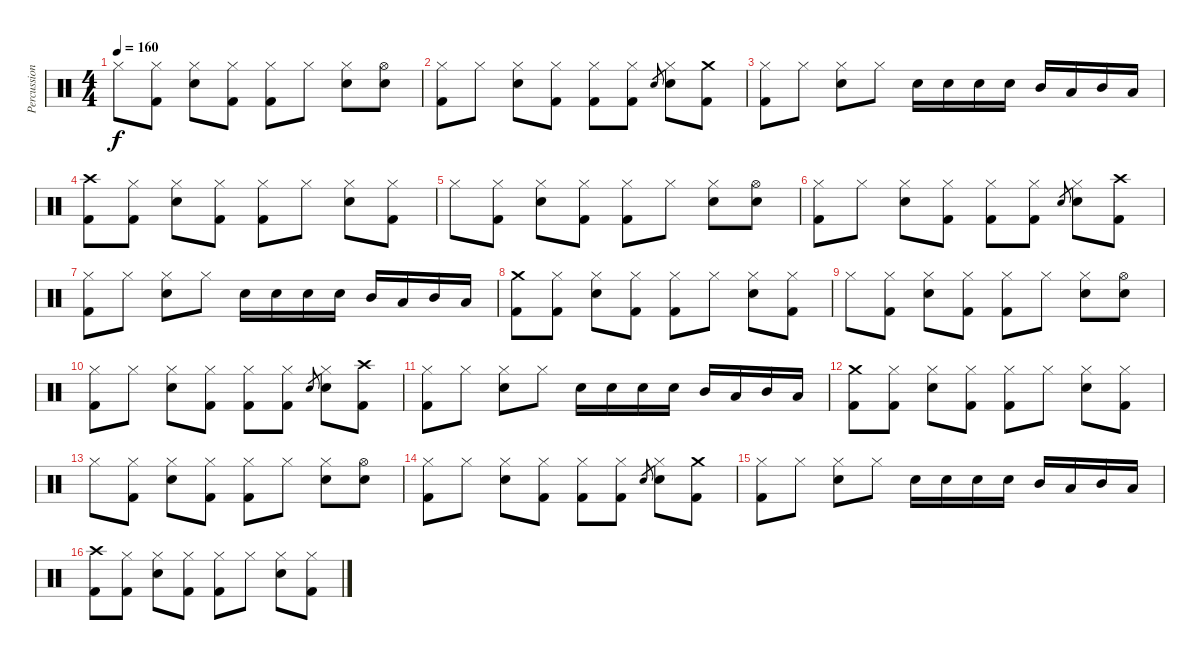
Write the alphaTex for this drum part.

\track ("Percussions" "Percussion") {instrument percussion}
\staff {score}
\articulation defaults
\ts (4 4)
\tempo 160
\clef neutral
\ks c "Hi-Hat (closed)".8{dy f}
("Hi-Hat (closed)" "Kick (hit) 2").8 ("Hi-Hat (closed)" "Electric Snare (hit)").8 ("Hi-Hat (closed)" "Kick (hit) 2").8 ("Hi-Hat (closed)" "Kick (hit) 2").8 "Hi-Hat (closed)".8 ("Hi-Hat (closed)" "Electric Snare (hit)").8 ("Hi-Hat (open)" "Electric Snare (hit)").8 |
("Hi-Hat (closed)" "Kick (hit) 2").8 "Hi-Hat (closed)".8 ("Hi-Hat (closed)" "Electric Snare (hit)").8 ("Hi-Hat (closed)" "Kick (hit) 2").8 ("Hi-Hat (closed)" "Kick (hit) 2").8 ("Hi-Hat (closed)" "Kick (hit) 2").8 "Electric Snare (hit)".8{gr} ("Hi-Hat (closed)" "Electric Snare (hit)").8 ("Crash medium (hit)" "Kick (hit) 2").8 |
("Hi-Hat (closed)" "Kick (hit) 2").8 "Hi-Hat (closed)".8 ("Hi-Hat (closed)" "Electric Snare (hit)").8 "Hi-Hat (closed)".8 "Electric Snare (hit)".16 "Electric Snare (hit)".16 "Electric Snare (hit)".16 "Electric Snare (hit)".16 "Mid Tom (hit)".16 "Low Tom (hit)".16 "Mid Tom (hit)".16 "Low Tom (hit)".16 |
("Crash high (hit)" "Kick (hit) 2").8 ("Hi-Hat (closed)" "Kick (hit) 2").8 ("Hi-Hat (closed)" "Electric Snare (hit)").8 ("Hi-Hat (closed)" "Kick (hit) 2").8 ("Hi-Hat (closed)" "Kick (hit) 2").8 "Hi-Hat (closed)".8 ("Hi-Hat (closed)" "Electric Snare (hit)").8 ("Hi-Hat (closed)" "Kick (hit) 2").8 |
"Hi-Hat (closed)".8 ("Hi-Hat (closed)" "Kick (hit) 2").8 ("Hi-Hat (closed)" "Electric Snare (hit)").8 ("Hi-Hat (closed)" "Kick (hit) 2").8 ("Hi-Hat (closed)" "Kick (hit) 2").8 "Hi-Hat (closed)".8 ("Hi-Hat (closed)" "Electric Snare (hit)").8 ("Hi-Hat (open)" "Electric Snare (hit)").8 |
("Hi-Hat (closed)" "Kick (hit) 2").8 "Hi-Hat (closed)".8 ("Hi-Hat (closed)" "Electric Snare (hit)").8 ("Hi-Hat (closed)" "Kick (hit) 2").8 ("Hi-Hat (closed)" "Kick (hit) 2").8 ("Hi-Hat (closed)" "Kick (hit) 2").8 "Electric Snare (hit)".8{gr} ("Hi-Hat (closed)" "Electric Snare (hit)").8 ("Crash high (hit)" "Kick (hit) 2").8 |
("Hi-Hat (closed)" "Kick (hit) 2").8 "Hi-Hat (closed)".8 ("Hi-Hat (closed)" "Electric Snare (hit)").8 "Hi-Hat (closed)".8 "Electric Snare (hit)".16 "Electric Snare (hit)".16 "Electric Snare (hit)".16 "Electric Snare (hit)".16 "Mid Tom (hit)".16 "Low Tom (hit)".16 "Mid Tom (hit)".16 "Low Tom (hit)".16 |
("Crash medium (hit)" "Kick (hit) 2").8 ("Hi-Hat (closed)" "Kick (hit) 2").8 ("Hi-Hat (closed)" "Electric Snare (hit)").8 ("Hi-Hat (closed)" "Kick (hit) 2").8 ("Hi-Hat (closed)" "Kick (hit) 2").8 "Hi-Hat (closed)".8 ("Hi-Hat (closed)" "Electric Snare (hit)").8 ("Hi-Hat (closed)" "Kick (hit) 2").8 |
"Hi-Hat (closed)".8 ("Hi-Hat (closed)" "Kick (hit) 2").8 ("Hi-Hat (closed)" "Electric Snare (hit)").8 ("Hi-Hat (closed)" "Kick (hit) 2").8 ("Hi-Hat (closed)" "Kick (hit) 2").8 "Hi-Hat (closed)".8 ("Hi-Hat (closed)" "Electric Snare (hit)").8 ("Hi-Hat (open)" "Electric Snare (hit)").8 |
("Hi-Hat (closed)" "Kick (hit) 2").8 "Hi-Hat (closed)".8 ("Hi-Hat (closed)" "Electric Snare (hit)").8 ("Hi-Hat (closed)" "Kick (hit) 2").8 ("Hi-Hat (closed)" "Kick (hit) 2").8 ("Hi-Hat (closed)" "Kick (hit) 2").8 "Electric Snare (hit)".8{gr} ("Hi-Hat (closed)" "Electric Snare (hit)").8 ("Crash high (hit)" "Kick (hit) 2").8 |
("Hi-Hat (closed)" "Kick (hit) 2").8 "Hi-Hat (closed)".8 ("Hi-Hat (closed)" "Electric Snare (hit)").8 "Hi-Hat (closed)".8 "Electric Snare (hit)".16 "Electric Snare (hit)".16 "Electric Snare (hit)".16 "Electric Snare (hit)".16 "Mid Tom (hit)".16 "Low Tom (hit)".16 "Mid Tom (hit)".16 "Low Tom (hit)".16 |
("Crash medium (hit)" "Kick (hit) 2").8 ("Hi-Hat (closed)" "Kick (hit) 2").8 ("Hi-Hat (closed)" "Electric Snare (hit)").8 ("Hi-Hat (closed)" "Kick (hit) 2").8 ("Hi-Hat (closed)" "Kick (hit) 2").8 "Hi-Hat (closed)".8 ("Hi-Hat (closed)" "Electric Snare (hit)").8 ("Hi-Hat (closed)" "Kick (hit) 2").8 |
"Hi-Hat (closed)".8 ("Hi-Hat (closed)" "Kick (hit) 2").8 ("Hi-Hat (closed)" "Electric Snare (hit)").8 ("Hi-Hat (closed)" "Kick (hit) 2").8 ("Hi-Hat (closed)" "Kick (hit) 2").8 "Hi-Hat (closed)".8 ("Hi-Hat (closed)" "Electric Snare (hit)").8 ("Hi-Hat (open)" "Electric Snare (hit)").8 |
("Hi-Hat (closed)" "Kick (hit) 2").8 "Hi-Hat (closed)".8 ("Hi-Hat (closed)" "Electric Snare (hit)").8 ("Hi-Hat (closed)" "Kick (hit) 2").8 ("Hi-Hat (closed)" "Kick (hit) 2").8 ("Hi-Hat (closed)" "Kick (hit) 2").8 "Electric Snare (hit)".8{gr} ("Hi-Hat (closed)" "Electric Snare (hit)").8 ("Crash medium (hit)" "Kick (hit) 2").8 |
("Hi-Hat (closed)" "Kick (hit) 2").8 "Hi-Hat (closed)".8 ("Hi-Hat (closed)" "Electric Snare (hit)").8 "Hi-Hat (closed)".8 "Electric Snare (hit)".16 "Electric Snare (hit)".16 "Electric Snare (hit)".16 "Electric Snare (hit)".16 "Mid Tom (hit)".16 "Low Tom (hit)".16 "Mid Tom (hit)".16 "Low Tom (hit)".16 |
("Crash high (hit)" "Kick (hit) 2").8 ("Hi-Hat (closed)" "Kick (hit) 2").8 ("Hi-Hat (closed)" "Electric Snare (hit)").8 ("Hi-Hat (closed)" "Kick (hit) 2").8 ("Hi-Hat (closed)" "Kick (hit) 2").8 "Hi-Hat (closed)".8 ("Hi-Hat (closed)" "Electric Snare (hit)").8 ("Hi-Hat (closed)" "Kick (hit) 2").8
